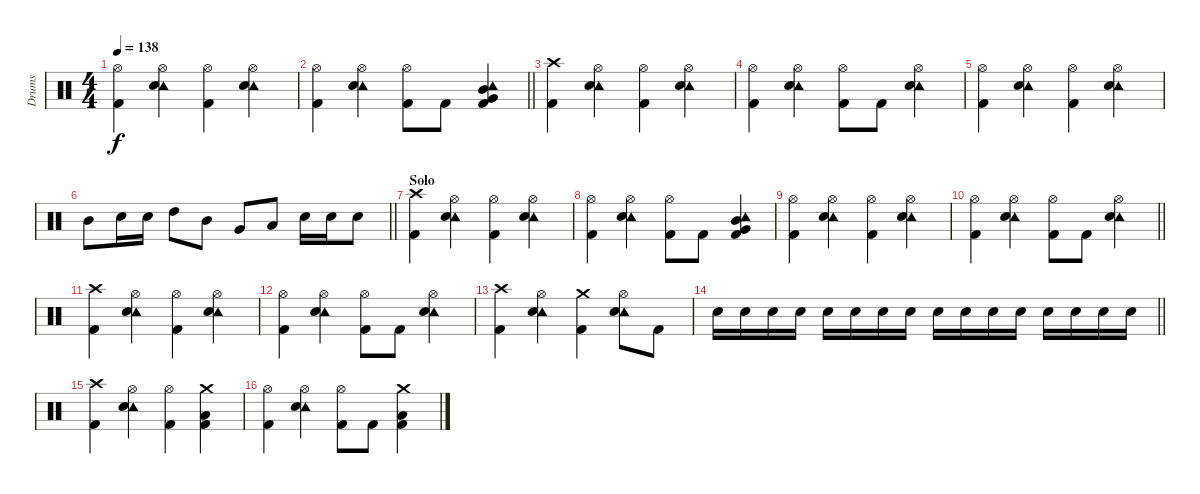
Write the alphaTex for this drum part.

\track ("Drums" "Drums") {instrument percussion}
\staff {score}
\articulation defaults
\ts (4 4)
\tempo 138
\clef neutral
\ks c
("Hi-Hat (open)" "Kick (hit) 2").4{dy f} ("Tambourine (hit)" "Hi-Hat (open)" "Snare (hit) 2").4 ("Hi-Hat (open)" "Kick (hit) 2").4 ("Tambourine (hit)" "Hi-Hat (open)" "Snare (hit) 2").4 |
\barLineRight lightlight
("Hi-Hat (open)" "Kick (hit) 2").4 ("Tambourine (hit)" "Hi-Hat (open)" "Snare (hit) 2").4 ("Hi-Hat (open)" "Kick (hit) 2").8 "Kick (hit) 2".8 ("Tambourine (hit)" "Mid Tom (hit)" "Very Low Tom (hit)" "Kick (hit) 2").4 |
("Crash high (hit)" "Kick (hit) 2").4 ("Tambourine (hit)" "Hi-Hat (open)" "Snare (hit) 2").4 ("Hi-Hat (open)" "Kick (hit) 2").4 ("Tambourine (hit)" "Hi-Hat (open)" "Snare (hit) 2").4 |
("Hi-Hat (open)" "Kick (hit) 2").4 ("Tambourine (hit)" "Hi-Hat (open)" "Snare (hit) 2").4 ("Hi-Hat (open)" "Kick (hit) 2").8 "Kick (hit) 2".8 ("Tambourine (hit)" "Hi-Hat (open)" "Snare (hit) 2").4 |
("Hi-Hat (open)" "Kick (hit) 2").4 ("Tambourine (hit)" "Hi-Hat (open)" "Snare (hit) 2").4 ("Hi-Hat (open)" "Kick (hit) 2").4 ("Tambourine (hit)" "Hi-Hat (open)" "Snare (hit) 2").4 |
\barLineRight lightlight "Mid Tom (hit)".8 "Snare (hit) 2".16 "Snare (hit) 2".16 "High Tom (hit)".8 "Mid Tom (hit)".8 "Very Low Tom (hit)".8 "Low Tom (hit)".8 "Snare (hit) 2".16 "Snare (hit) 2".16 "Snare (hit) 2".8
|
\section ("" "Solo")
("Crash high (hit)" "Kick (hit) 2").4 ("Tambourine (hit)" "Hi-Hat (open)" "Snare (hit) 2").4 ("Hi-Hat (open)" "Kick (hit) 2").4 ("Tambourine (hit)" "Hi-Hat (open)" "Snare (hit) 2").4 |
("Hi-Hat (open)" "Kick (hit) 2").4 ("Tambourine (hit)" "Hi-Hat (open)" "Snare (hit) 2").4 ("Hi-Hat (open)" "Kick (hit) 2").8 "Kick (hit) 2".8 ("Tambourine (hit)" "Mid Tom (hit)" "Very Low Tom (hit)" "Kick (hit) 2").4 |
("Hi-Hat (open)" "Kick (hit) 2").4 ("Tambourine (hit)" "Hi-Hat (open)" "Snare (hit) 2").4 ("Hi-Hat (open)" "Kick (hit) 2").4 ("Tambourine (hit)" "Hi-Hat (open)" "Snare (hit) 2").4 |
\barLineRight lightlight
("Hi-Hat (open)" "Kick (hit) 2").4 ("Tambourine (hit)" "Hi-Hat (open)" "Snare (hit) 2").4 ("Hi-Hat (open)" "Kick (hit) 2").8 "Kick (hit) 2".8 ("Tambourine (hit)" "Hi-Hat (open)" "Snare (hit) 2").4 |
("Crash high (hit)" "Kick (hit) 2").4 ("Tambourine (hit)" "Hi-Hat (open)" "Snare (hit) 2").4 ("Hi-Hat (open)" "Kick (hit) 2").4 ("Tambourine (hit)" "Hi-Hat (open)" "Snare (hit) 2").4 |
("Hi-Hat (open)" "Kick (hit) 2").4 ("Tambourine (hit)" "Hi-Hat (open)" "Snare (hit) 2").4 ("Hi-Hat (open)" "Kick (hit) 2").8 "Kick (hit) 2".8 ("Tambourine (hit)" "Hi-Hat (open)" "Snare (hit) 2").4 |
("Crash high (hit)" "Kick (hit) 2").4 ("Tambourine (hit)" "Hi-Hat (open)" "Snare (hit) 2").4 ("Crash medium (hit)" "Kick (hit) 2").4 ("Tambourine (hit)" "Hi-Hat (open)" "Snare (hit) 2").8 "Kick (hit) 2".8 |
\barLineRight lightlight "Snare (hit) 2".16 "Snare (hit) 2".16 "Snare (hit) 2".16 "Snare (hit) 2".16 "Snare (hit) 2".16 "Snare (hit) 2".16 "Snare (hit) 2".16 "Snare (hit) 2".16 "Snare (hit) 2".16 "Snare (hit) 2".16 "Snare (hit) 2".16 "Snare (hit) 2".16 "Snare (hit) 2".16 "Snare (hit) 2".16 "Snare (hit) 2".16 "Snare (hit) 2".16
|
("Crash high (hit)" "Kick (hit) 2").4 ("Tambourine (hit)" "Hi-Hat (open)" "Snare (hit) 2").4 ("Hi-Hat (open)" "Kick (hit) 2").4 ("Crash medium (hit)" "Low Tom (hit)" "Kick (hit) 2").4 |
("Hi-Hat (open)" "Kick (hit) 2").4 ("Tambourine (hit)" "Hi-Hat (open)" "Snare (hit) 2").4 ("Hi-Hat (open)" "Kick (hit) 2").8 "Kick (hit) 2".8 ("Crash medium (hit)" "Low Tom (hit)" "Kick (hit) 2").4
